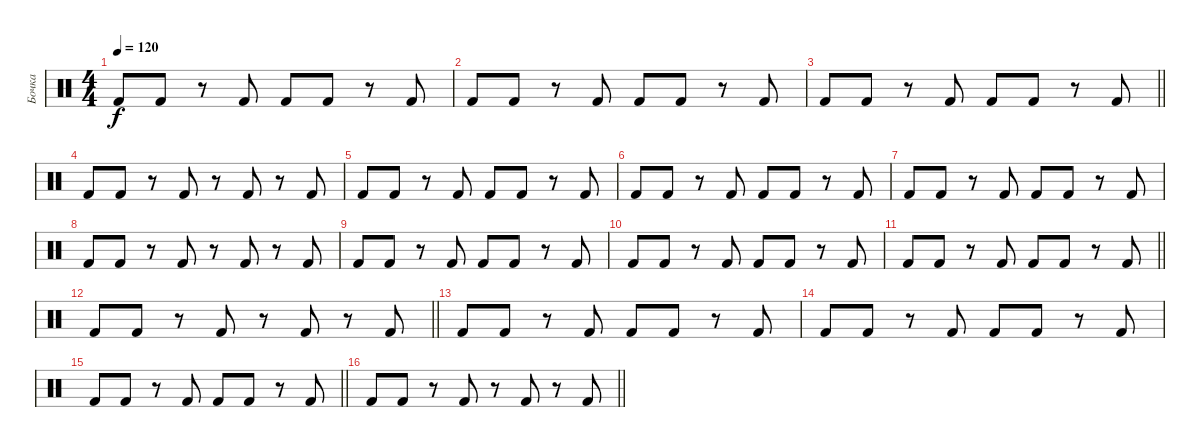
\track ("Бочка" "Бочка") {instrument percussion}
\staff {score}
\articulation defaults
\ts (4 4)
\tempo 120
\clef neutral
\ks c "Kick (hit) 2".8{dy f} "Kick (hit) 2".8
r.8 "Kick (hit) 2".8 "Kick (hit) 2".8 "Kick (hit) 2".8 r.8 "Kick (hit) 2".8 |
"Kick (hit) 2".8 "Kick (hit) 2".8 r.8 "Kick (hit) 2".8 "Kick (hit) 2".8 "Kick (hit) 2".8 r.8 "Kick (hit) 2".8 |
\barLineRight lightlight "Kick (hit) 2".8 "Kick (hit) 2".8
r.8 "Kick (hit) 2".8 "Kick (hit) 2".8 "Kick (hit) 2".8 r.8 "Kick (hit) 2".8 |
"Kick (hit) 2".8 "Kick (hit) 2".8 r.8 "Kick (hit) 2".8 r.8 "Kick (hit) 2".8 r.8 "Kick (hit) 2".8 |
"Kick (hit) 2".8 "Kick (hit) 2".8 r.8 "Kick (hit) 2".8 "Kick (hit) 2".8 "Kick (hit) 2".8 r.8 "Kick (hit) 2".8 |
"Kick (hit) 2".8 "Kick (hit) 2".8 r.8 "Kick (hit) 2".8 "Kick (hit) 2".8 "Kick (hit) 2".8 r.8 "Kick (hit) 2".8 |
"Kick (hit) 2".8 "Kick (hit) 2".8 r.8 "Kick (hit) 2".8 "Kick (hit) 2".8 "Kick (hit) 2".8 r.8 "Kick (hit) 2".8 |
"Kick (hit) 2".8 "Kick (hit) 2".8 r.8 "Kick (hit) 2".8 r.8 "Kick (hit) 2".8 r.8 "Kick (hit) 2".8 |
"Kick (hit) 2".8 "Kick (hit) 2".8 r.8 "Kick (hit) 2".8 "Kick (hit) 2".8 "Kick (hit) 2".8 r.8 "Kick (hit) 2".8 |
"Kick (hit) 2".8 "Kick (hit) 2".8 r.8 "Kick (hit) 2".8 "Kick (hit) 2".8 "Kick (hit) 2".8 r.8 "Kick (hit) 2".8 |
\barLineRight lightlight "Kick (hit) 2".8 "Kick (hit) 2".8
r.8 "Kick (hit) 2".8 "Kick (hit) 2".8 "Kick (hit) 2".8 r.8 "Kick (hit) 2".8 |
\barLineRight lightlight "Kick (hit) 2".8 "Kick (hit) 2".8
r.8 "Kick (hit) 2".8 r.8 "Kick (hit) 2".8 r.8 "Kick (hit) 2".8 |
"Kick (hit) 2".8 "Kick (hit) 2".8 r.8 "Kick (hit) 2".8 "Kick (hit) 2".8 "Kick (hit) 2".8 r.8 "Kick (hit) 2".8 |
"Kick (hit) 2".8 "Kick (hit) 2".8 r.8 "Kick (hit) 2".8 "Kick (hit) 2".8 "Kick (hit) 2".8 r.8 "Kick (hit) 2".8 |
\barLineRight lightlight "Kick (hit) 2".8 "Kick (hit) 2".8
r.8 "Kick (hit) 2".8 "Kick (hit) 2".8 "Kick (hit) 2".8 r.8 "Kick (hit) 2".8 |
\barLineRight lightlight "Kick (hit) 2".8 "Kick (hit) 2".8
r.8 "Kick (hit) 2".8 r.8 "Kick (hit) 2".8 r.8 "Kick (hit) 2".8
